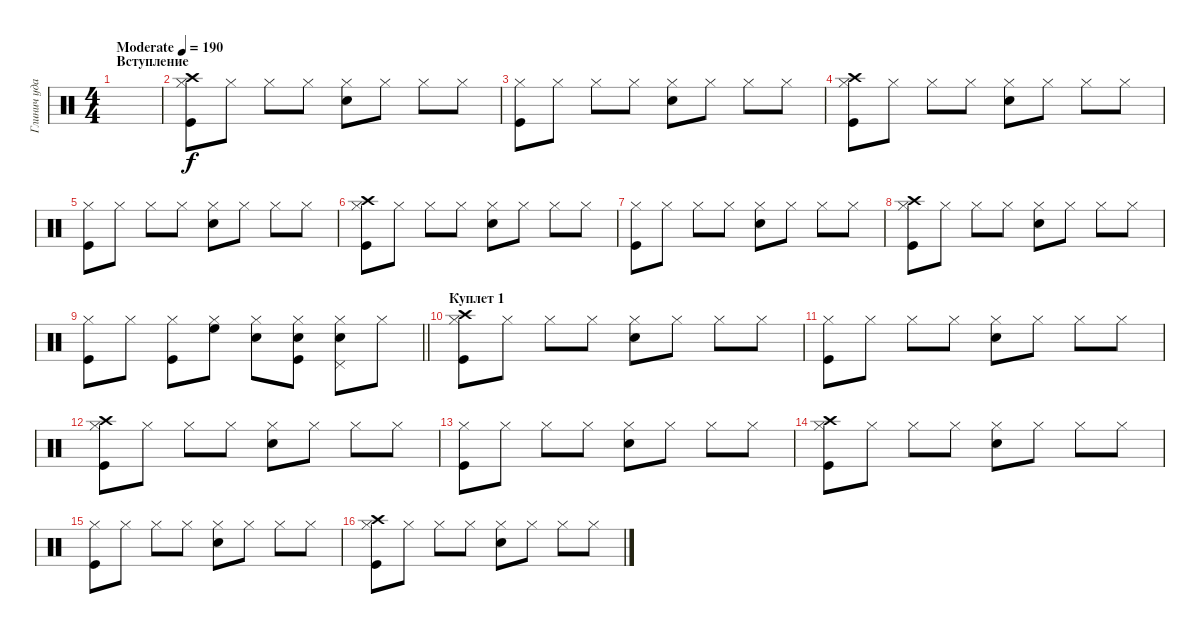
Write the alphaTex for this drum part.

\track ("Глинич ударные" "Глинич уда") {instrument percussion}
\staff {score}
\articulation defaults
\ts (4 4)
\section ("" "Вступление")
\tempo (190 "Moderate")
\clef neutral
\ks c
|
("Hi-Hat (closed)" "Kick (hit)" "Crash high (hit)").8 "Hi-Hat (closed)".8 "Hi-Hat (closed)".8 "Hi-Hat (closed)".8 ("Hi-Hat (closed)" "Snare (hit) 2").8 "Hi-Hat (closed)".8 "Hi-Hat (closed)".8 "Hi-Hat (closed)".8 |
("Hi-Hat (closed)" "Kick (hit)").8 "Hi-Hat (closed)".8 "Hi-Hat (closed)".8 "Hi-Hat (closed)".8 ("Hi-Hat (closed)" "Snare (hit) 2").8 "Hi-Hat (closed)".8 "Hi-Hat (closed)".8 "Hi-Hat (closed)".8 |
("Hi-Hat (closed)" "Kick (hit)" "Crash high (hit)").8 "Hi-Hat (closed)".8 "Hi-Hat (closed)".8 "Hi-Hat (closed)".8 ("Hi-Hat (closed)" "Snare (hit) 2").8 "Hi-Hat (closed)".8 "Hi-Hat (closed)".8 "Hi-Hat (closed)".8 |
("Hi-Hat (closed)" "Kick (hit)").8 "Hi-Hat (closed)".8 "Hi-Hat (closed)".8 "Hi-Hat (closed)".8 ("Hi-Hat (closed)" "Snare (hit) 2").8 "Hi-Hat (closed)".8 "Hi-Hat (closed)".8 "Hi-Hat (closed)".8 |
("Hi-Hat (closed)" "Kick (hit)" "Crash high (hit)").8 "Hi-Hat (closed)".8 "Hi-Hat (closed)".8 "Hi-Hat (closed)".8 ("Hi-Hat (closed)" "Snare (hit) 2").8 "Hi-Hat (closed)".8 "Hi-Hat (closed)".8 "Hi-Hat (closed)".8 |
("Hi-Hat (closed)" "Kick (hit)").8 "Hi-Hat (closed)".8 "Hi-Hat (closed)".8 "Hi-Hat (closed)".8 ("Hi-Hat (closed)" "Snare (hit) 2").8 "Hi-Hat (closed)".8 "Hi-Hat (closed)".8 "Hi-Hat (closed)".8 |
("Hi-Hat (closed)" "Kick (hit)" "Crash high (hit)").8 "Hi-Hat (closed)".8 "Hi-Hat (closed)".8 "Hi-Hat (closed)".8 ("Hi-Hat (closed)" "Snare (hit) 2").8 "Hi-Hat (closed)".8 "Hi-Hat (closed)".8 "Hi-Hat (closed)".8 |
\barLineRight lightlight
("Hi-Hat (closed)" "Kick (hit)").8 "Hi-Hat (closed)".8 ("Hi-Hat (closed)" "Kick (hit)").8 ("Hi-Hat (closed)" "High Floor Tom (hit)").8 ("Hi-Hat (closed)" "Snare (hit) 2").8 ("Hi-Hat (closed)" "Kick (hit)" "Snare (hit) 2").8 ("Hi-Hat (closed)" "Pedal Hi-Hat (hit)" "Snare (hit) 2").8 "Hi-Hat (closed)".8 |
\section ("" "Куплет 1")
("Hi-Hat (closed)" "Kick (hit)" "Crash high (hit)").8 "Hi-Hat (closed)".8 "Hi-Hat (closed)".8 "Hi-Hat (closed)".8 ("Hi-Hat (closed)" "Snare (hit) 2").8 "Hi-Hat (closed)".8 "Hi-Hat (closed)".8 "Hi-Hat (closed)".8 |
("Hi-Hat (closed)" "Kick (hit)").8 "Hi-Hat (closed)".8 "Hi-Hat (closed)".8 "Hi-Hat (closed)".8 ("Hi-Hat (closed)" "Snare (hit) 2").8 "Hi-Hat (closed)".8 "Hi-Hat (closed)".8 "Hi-Hat (closed)".8 |
("Hi-Hat (closed)" "Kick (hit)" "Crash high (hit)").8 "Hi-Hat (closed)".8 "Hi-Hat (closed)".8 "Hi-Hat (closed)".8 ("Hi-Hat (closed)" "Snare (hit) 2").8 "Hi-Hat (closed)".8 "Hi-Hat (closed)".8 "Hi-Hat (closed)".8 |
("Hi-Hat (closed)" "Kick (hit)").8 "Hi-Hat (closed)".8 "Hi-Hat (closed)".8 "Hi-Hat (closed)".8 ("Hi-Hat (closed)" "Snare (hit) 2").8 "Hi-Hat (closed)".8 "Hi-Hat (closed)".8 "Hi-Hat (closed)".8 |
("Hi-Hat (closed)" "Kick (hit)" "Crash high (hit)").8 "Hi-Hat (closed)".8 "Hi-Hat (closed)".8 "Hi-Hat (closed)".8 ("Hi-Hat (closed)" "Snare (hit) 2").8 "Hi-Hat (closed)".8 "Hi-Hat (closed)".8 "Hi-Hat (closed)".8 |
("Hi-Hat (closed)" "Kick (hit)").8 "Hi-Hat (closed)".8 "Hi-Hat (closed)".8 "Hi-Hat (closed)".8 ("Hi-Hat (closed)" "Snare (hit) 2").8 "Hi-Hat (closed)".8 "Hi-Hat (closed)".8 "Hi-Hat (closed)".8 |
("Hi-Hat (closed)" "Kick (hit)" "Crash high (hit)").8 "Hi-Hat (closed)".8 "Hi-Hat (closed)".8 "Hi-Hat (closed)".8 ("Hi-Hat (closed)" "Snare (hit) 2").8 "Hi-Hat (closed)".8 "Hi-Hat (closed)".8 "Hi-Hat (closed)".8
